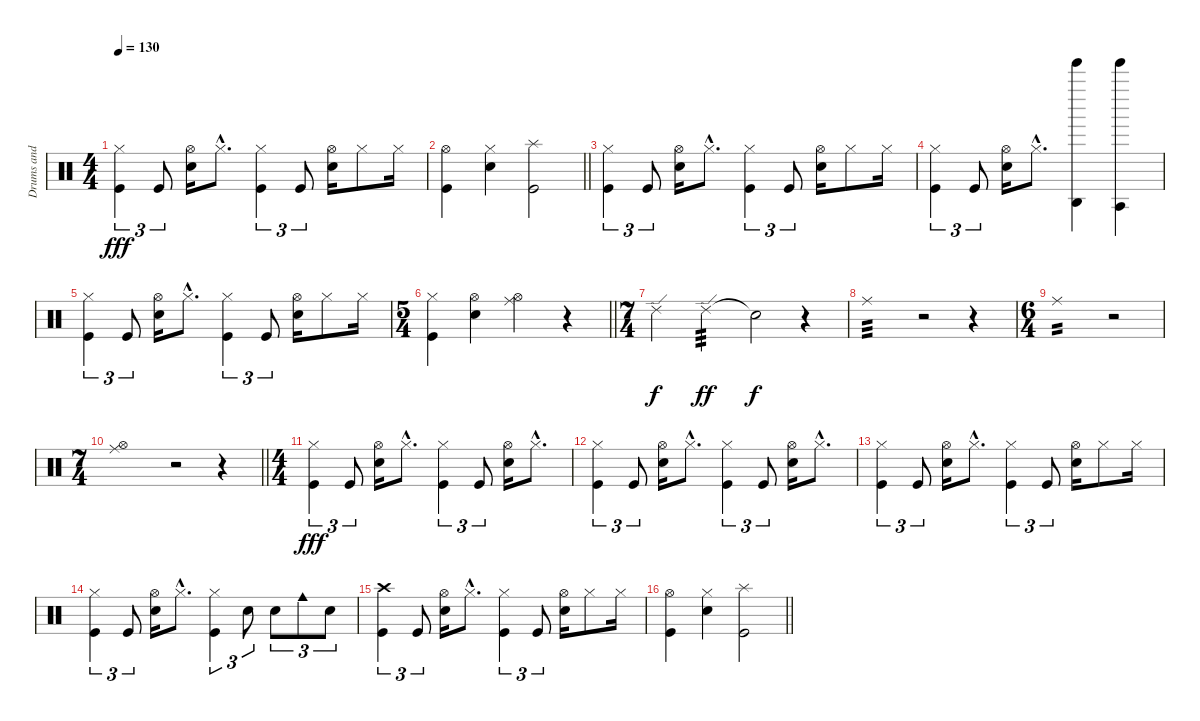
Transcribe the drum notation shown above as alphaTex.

\track ("Drums and percussion" "Drums and ") {instrument percussion}
\staff {score}
\articulation defaults
\ts (4 4)
\tempo 130
\clef neutral
\ks c
("Hi-Hat (closed)" "Kick (hit)").4{tu (3 2) dy fff} "Kick (hit)".8{tu (3 2)} ("Hi-Hat (open)" "Snare (hit) 2").16 "Hi-Hat (closed)"{hac}.8{d} ("Hi-Hat (closed)" "Kick (hit)").4{tu (3 2)} "Kick (hit)".8{tu (3 2)} ("Hi-Hat (open)" "Snare (hit) 2").16 "Hi-Hat (closed)".8 "Hi-Hat (closed)".16 |
\barLineRight lightlight
("Hi-Hat (open)" "Kick (hit)").4 ("Hi-Hat (closed)" "Snare (hit) 2").4 ("Splash (hit)" "Kick (hit)").2 |
("Hi-Hat (closed)" "Kick (hit)").4{tu (3 2)} "Kick (hit)".8{tu (3 2)} ("Hi-Hat (open)" "Snare (hit) 2").16 "Hi-Hat (closed)"{hac}.8{d} ("Hi-Hat (closed)" "Kick (hit)").4{tu (3 2)} "Kick (hit)".8{tu (3 2)} ("Hi-Hat (open)" "Snare (hit) 2").16 "Hi-Hat (closed)".8 "Hi-Hat (closed)".16 |
("Hi-Hat (closed)" "Kick (hit)").4{tu (3 2)} "Kick (hit)".8{tu (3 2)} ("Hi-Hat (open)" "Snare (hit) 2").16 "Hi-Hat (closed)"{hac}.8{d} ("Agogo high (hit)" "Tinkle Bell (hit)").4 ("Agogo tow (hit)" "Tinkle Bell (hit)").4 |
("Hi-Hat (closed)" "Kick (hit)").4{tu (3 2)} "Kick (hit)".8{tu (3 2)} ("Hi-Hat (open)" "Snare (hit) 2").16 "Hi-Hat (closed)"{hac}.8{d} ("Hi-Hat (closed)" "Kick (hit)").4{tu (3 2)} "Kick (hit)".8{tu (3 2)} ("Hi-Hat (open)" "Snare (hit) 2").16 "Hi-Hat (closed)".8 "Hi-Hat (closed)".16 |
\ts (5 4)
\barLineRight lightlight
("Hi-Hat (closed)" "Kick (hit)").4 ("Hi-Hat (open)" "Snare (hit) 2").4 ("Ride (middle)" "Hi-Hat (open)").2 r.4 |
\ts (7 4)
"Ride (edge) 2".2{dy f} "Ride (edge) 2".2{tp 3 dy ff} "Snare (hit)"{t}.2{dy f} r.4 |
"Ride (middle)".1{tp 3} r.2 r.4 |
\ts (6 4)
"Ride (middle)".1{tp 2} r.2 |
\ts (7 4)
\barLineRight lightlight
("Hi-Hat (open)" "Ride (middle)").1 r.2 r.4 |
\ts (4 4)
("Hi-Hat (closed)" "Kick (hit)").4{tu (3 2) dy fff} "Kick (hit)".8{tu (3 2)} ("Hi-Hat (open)" "Snare (hit) 2").16 "Hi-Hat (closed)"{hac}.8{d} ("Hi-Hat (closed)" "Kick (hit)").4{tu (3 2)} "Kick (hit)".8{tu (3 2)} ("Hi-Hat (open)" "Snare (hit) 2").16 "Hi-Hat (closed)"{hac}.8{d} |
("Hi-Hat (closed)" "Kick (hit)").4{tu (3 2)} "Kick (hit)".8{tu (3 2)} ("Hi-Hat (open)" "Snare (hit) 2").16 "Hi-Hat (closed)"{hac}.8{d} ("Hi-Hat (closed)" "Kick (hit)").4{tu (3 2)} "Kick (hit)".8{tu (3 2)} ("Hi-Hat (open)" "Snare (hit) 2").16 "Hi-Hat (closed)"{hac}.8{d} |
("Hi-Hat (closed)" "Kick (hit)").4{tu (3 2)} "Kick (hit)".8{tu (3 2)} ("Hi-Hat (open)" "Snare (hit) 2").16 "Hi-Hat (closed)"{hac}.8{d} ("Hi-Hat (closed)" "Kick (hit)").4{tu (3 2)} "Kick (hit)".8{tu (3 2)} ("Hi-Hat (open)" "Snare (hit) 2").16 "Hi-Hat (closed)".8 "Hi-Hat (closed)".16 |
("Hi-Hat (closed)" "Kick (hit)").4{tu (3 2)} "Kick (hit)".8{tu (3 2)} ("Hi-Hat (open)" "Snare (hit) 2").16 "Hi-Hat (closed)"{hac}.8{d} ("Hi-Hat (closed)" "Kick (hit)").4{tu (3 2)} "Electric Snare (hit)".8{tu (3 2)} "Snare (hit) 2".8{tu (3 2)} "Cowbell medium (hit)".8{tu (3 2)} "Snare (hit) 2".8{tu (3 2)} |
("Crash high (hit)" "Kick (hit)").4{tu (3 2)} "Kick (hit)".8{tu (3 2)} ("Hi-Hat (open)" "Snare (hit) 2").16 "Hi-Hat (closed)"{hac}.8{d} ("Hi-Hat (closed)" "Kick (hit)").4{tu (3 2)} "Kick (hit)".8{tu (3 2)} ("Hi-Hat (open)" "Snare (hit) 2").16 "Hi-Hat (closed)".8 "Hi-Hat (closed)".16 |
\barLineRight lightlight
("Hi-Hat (open)" "Kick (hit)").4 ("Hi-Hat (closed)" "Snare (hit) 2").4 ("Splash (hit)" "Kick (hit)").2
